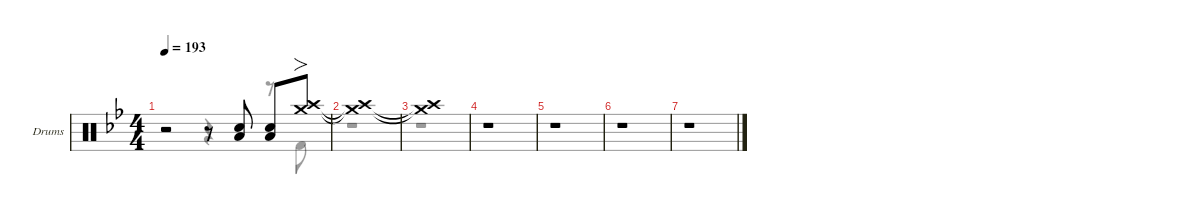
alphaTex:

\defaultSystemsLayout 4
\hideDynamics
\bracketExtendMode nobrackets
\firstSystemTrackNameOrientation horizontal
\track ("Drums" "Drums") {defaultSystemsLayout 4 instrument percussion}
\staff {score}
\articulation defaults
\voice
\ts (4 4)
\tempo 193
\clef neutral
\scale
0.244132
\ks bb
r.2{dy f beam Up} r.8{beam Up} ("Snare (hit) 2"{acc forcenatural} "Low Tom (hit)"{acc forcenatural}).8{beam Up} ("Low Tom (hit)"{acc forcenatural} "Snare (hit) 2"{acc forcenatural}).8{beam Up} ("Crash high (hit)"{acc forcenatural} "Crash medium (hit)"{acc forcenatural}).8{fo beam Up} |
\scale
0.244132 ("Crash high (hit)"{t acc forcenatural} "Crash medium (hit)"{t acc forcenatural}).1{beam Up} |
\scale
0.244132 ("Crash high (hit)"{t acc forcenatural} "Crash medium (hit)"{t acc forcenatural}).1{beam Up} |
\scale
0.267605 r.1{beam Up} |
\scale
0.244132 r.1{beam Up} |
\scale
0.244132 r.1{beam Up} |
\scale
0.244132 r.1{beam Up}
\voice
\clef neutral
\ottava regular
\simile none
\scale
0.244132
\ks bb
r.2{dy f beam Down} r.4{beam Down} r.8{beam Down} "Kick (hit) 2"{acc forcenatural}.8{beam Down} |
\scale
0.244132 r.1{beam Down} |
\scale
0.244132 r.1{beam Down} |
\scale
0.267605 r.1{beam Down} |
\scale
0.244132 r.1{beam Down} |
\scale
0.244132 r.1{beam Down} |
\scale
0.244132 r.1{beam Down}
